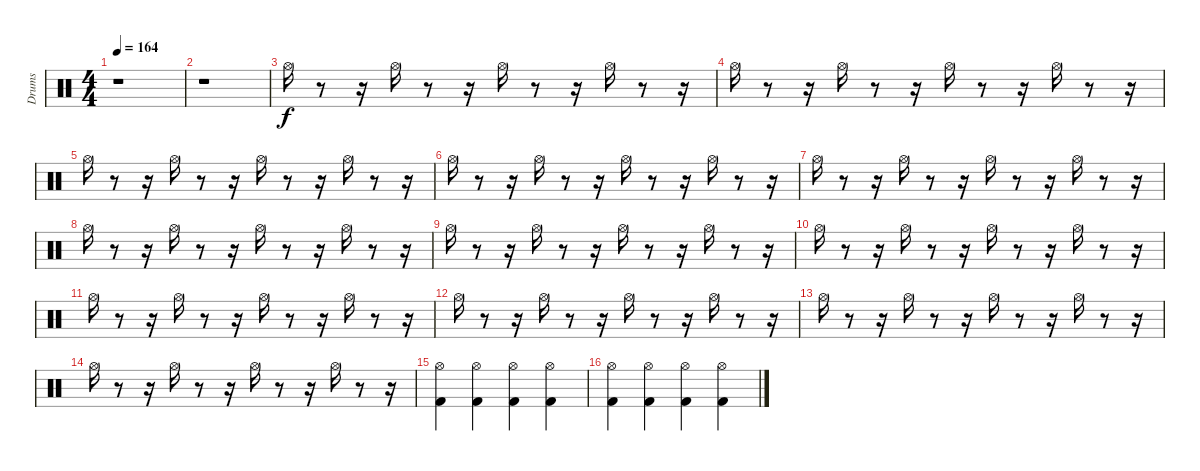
\track ("Drums " "Drums ") {instrument percussion}
\staff {score}
\articulation defaults
\ts (4 4)
\tempo 164
\clef neutral
\ks c
r.1{dy f} |
r.1 |
"Hi-Hat (open)".16 r.8 r.16 "Hi-Hat (open)".16 r.8 r.16 "Hi-Hat (open)".16 r.8 r.16 "Hi-Hat (open)".16 r.8 r.16 |
"Hi-Hat (open)".16 r.8 r.16 "Hi-Hat (open)".16 r.8 r.16 "Hi-Hat (open)".16 r.8 r.16 "Hi-Hat (open)".16 r.8 r.16 |
"Hi-Hat (open)".16 r.8 r.16 "Hi-Hat (open)".16 r.8 r.16 "Hi-Hat (open)".16 r.8 r.16 "Hi-Hat (open)".16 r.8 r.16 |
"Hi-Hat (open)".16 r.8 r.16 "Hi-Hat (open)".16 r.8 r.16 "Hi-Hat (open)".16 r.8 r.16 "Hi-Hat (open)".16 r.8 r.16 |
"Hi-Hat (open)".16 r.8 r.16 "Hi-Hat (open)".16 r.8 r.16 "Hi-Hat (open)".16 r.8 r.16 "Hi-Hat (open)".16 r.8 r.16 |
"Hi-Hat (open)".16 r.8 r.16 "Hi-Hat (open)".16 r.8 r.16 "Hi-Hat (open)".16 r.8 r.16 "Hi-Hat (open)".16 r.8 r.16 |
"Hi-Hat (open)".16 r.8 r.16 "Hi-Hat (open)".16 r.8 r.16 "Hi-Hat (open)".16 r.8 r.16 "Hi-Hat (open)".16 r.8 r.16 |
"Hi-Hat (open)".16 r.8 r.16 "Hi-Hat (open)".16 r.8 r.16 "Hi-Hat (open)".16 r.8 r.16 "Hi-Hat (open)".16 r.8 r.16 |
"Hi-Hat (open)".16 r.8 r.16 "Hi-Hat (open)".16 r.8 r.16 "Hi-Hat (open)".16 r.8 r.16 "Hi-Hat (open)".16 r.8 r.16 |
"Hi-Hat (open)".16 r.8 r.16 "Hi-Hat (open)".16 r.8 r.16 "Hi-Hat (open)".16 r.8 r.16 "Hi-Hat (open)".16 r.8 r.16 |
"Hi-Hat (open)".16 r.8 r.16 "Hi-Hat (open)".16 r.8 r.16 "Hi-Hat (open)".16 r.8 r.16 "Hi-Hat (open)".16 r.8 r.16 |
"Hi-Hat (open)".16 r.8 r.16 "Hi-Hat (open)".16 r.8 r.16 "Hi-Hat (open)".16 r.8 r.16 "Hi-Hat (open)".16 r.8 r.16 |
("Hi-Hat (open)" "Kick (hit) 2").4 ("Hi-Hat (open)" "Kick (hit) 2").4 ("Kick (hit) 2" "Hi-Hat (open)").4 ("Kick (hit) 2" "Hi-Hat (open)").4 |
("Hi-Hat (open)" "Kick (hit) 2").4 ("Hi-Hat (open)" "Kick (hit) 2").4 ("Kick (hit) 2" "Hi-Hat (open)").4 ("Kick (hit) 2" "Hi-Hat (open)").4
